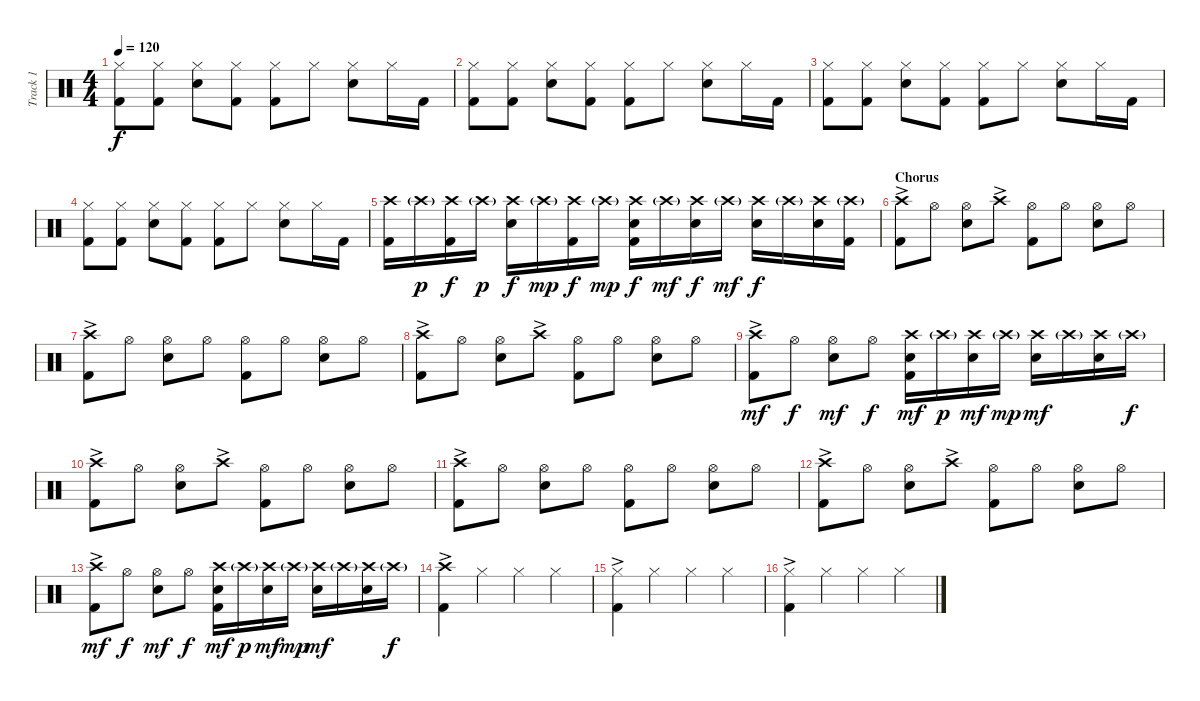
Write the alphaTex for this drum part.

\track ("Track 1" "Track 1") {instrument percussion}
\staff {score}
\articulation defaults
\ts (4 4)
\tempo 120
\clef neutral
\ks c
("Hi-Hat (closed)" "Kick (hit) 2").8{dy f} ("Hi-Hat (closed)" "Kick (hit) 2").8 ("Hi-Hat (closed)" "Snare (hit) 2").8 ("Hi-Hat (closed)" "Kick (hit) 2").8 ("Hi-Hat (closed)" "Kick (hit) 2").8 "Hi-Hat (closed)".8 ("Hi-Hat (closed)" "Snare (hit) 2").8 "Hi-Hat (closed)".16 "Kick (hit) 2".16 |
("Hi-Hat (closed)" "Kick (hit) 2").8 ("Hi-Hat (closed)" "Kick (hit) 2").8 ("Hi-Hat (closed)" "Snare (hit) 2").8 ("Hi-Hat (closed)" "Kick (hit) 2").8 ("Hi-Hat (closed)" "Kick (hit) 2").8 "Hi-Hat (closed)".8 ("Hi-Hat (closed)" "Snare (hit) 2").8 "Hi-Hat (closed)".16 "Kick (hit) 2".16 |
("Hi-Hat (closed)" "Kick (hit) 2").8 ("Hi-Hat (closed)" "Kick (hit) 2").8 ("Hi-Hat (closed)" "Snare (hit) 2").8 ("Hi-Hat (closed)" "Kick (hit) 2").8 ("Hi-Hat (closed)" "Kick (hit) 2").8 "Hi-Hat (closed)".8 ("Hi-Hat (closed)" "Snare (hit) 2").8 "Hi-Hat (closed)".16 "Kick (hit) 2".16 |
("Hi-Hat (closed)" "Kick (hit) 2").8 ("Hi-Hat (closed)" "Kick (hit) 2").8 ("Hi-Hat (closed)" "Snare (hit) 2").8 ("Hi-Hat (closed)" "Kick (hit) 2").8 ("Hi-Hat (closed)" "Kick (hit) 2").8 "Hi-Hat (closed)".8 ("Hi-Hat (closed)" "Snare (hit) 2").8 "Hi-Hat (closed)".16 "Kick (hit) 2".16 |
("Crash high (hit)" "Kick (hit) 2").16 "Crash high (hit)"{g}.16{dy p} ("Crash high (hit)" "Kick (hit) 2").16{dy f} "Crash high (hit)"{g}.16{dy p} ("Crash high (hit)" "Snare (hit) 2").16{dy f} "Crash high (hit)"{g}.16{dy mp} ("Crash high (hit)" "Kick (hit) 2").16{dy f} "Crash high (hit)"{g}.16{dy mp} ("Crash high (hit)" "Snare (hit) 2" "Kick (hit) 2").16{dy f} "Crash high (hit)"{g}.16{dy mf} ("Crash high (hit)" "Snare (hit) 2").16{dy f} "Crash high (hit)"{g}.16{dy mf} ("Crash high (hit)" "Snare (hit) 2").16{dy f} "Crash high (hit)"{g}.16 ("Crash high (hit)" "Snare (hit) 2").16 ("Crash high (hit)"{g} "Kick (hit) 2").16 |
\section ("" "Chorus")
("Crash high (hit)"{ac} "Kick (hit) 2").8 "Hi-Hat (open)".8 ("Hi-Hat (open)" "Snare (hit) 2").8 "Crash high (hit)"{ac}.8 ("Hi-Hat (open)" "Kick (hit) 2").8 "Hi-Hat (open)".8 ("Hi-Hat (open)" "Snare (hit) 2").8 "Hi-Hat (open)".8 |
("Crash high (hit)"{ac} "Kick (hit) 2").8 "Hi-Hat (open)".8 ("Hi-Hat (open)" "Snare (hit) 2").8 "Hi-Hat (open)".8 ("Hi-Hat (open)" "Kick (hit) 2").8 "Hi-Hat (open)".8 ("Hi-Hat (open)" "Snare (hit) 2").8 "Hi-Hat (open)".8 |
("Crash high (hit)"{ac} "Kick (hit) 2").8 "Hi-Hat (open)".8 ("Hi-Hat (open)" "Snare (hit) 2").8 "Crash high (hit)"{ac}.8 ("Hi-Hat (open)" "Kick (hit) 2").8 "Hi-Hat (open)".8 ("Hi-Hat (open)" "Snare (hit) 2").8 "Hi-Hat (open)".8 |
("Crash high (hit)"{ac} "Kick (hit) 2").8{dy mf} "Hi-Hat (open)".8{dy f} ("Hi-Hat (open)" "Snare (hit) 2").8{dy mf} "Hi-Hat (open)".8{dy f} ("Crash high (hit)" "Snare (hit) 2" "Kick (hit) 2").16{dy mf} "Crash high (hit)"{g}.16{dy p} ("Crash high (hit)" "Snare (hit) 2").16{dy mf} "Crash high (hit)"{g}.16{dy mp} ("Crash high (hit)" "Snare (hit) 2").16{dy mf} "Crash high (hit)"{g}.16 ("Crash high (hit)" "Snare (hit) 2").16 "Crash high (hit)"{g}.16{dy f} |
("Crash high (hit)"{ac} "Kick (hit) 2").8 "Hi-Hat (open)".8 ("Hi-Hat (open)" "Snare (hit) 2").8 "Crash high (hit)"{ac}.8 ("Hi-Hat (open)" "Kick (hit) 2").8 "Hi-Hat (open)".8 ("Hi-Hat (open)" "Snare (hit) 2").8 "Hi-Hat (open)".8 |
("Crash high (hit)"{ac} "Kick (hit) 2").8 "Hi-Hat (open)".8 ("Hi-Hat (open)" "Snare (hit) 2").8 "Hi-Hat (open)".8 ("Hi-Hat (open)" "Kick (hit) 2").8 "Hi-Hat (open)".8 ("Hi-Hat (open)" "Snare (hit) 2").8 "Hi-Hat (open)".8 |
("Crash high (hit)"{ac} "Kick (hit) 2").8 "Hi-Hat (open)".8 ("Hi-Hat (open)" "Snare (hit) 2").8 "Crash high (hit)"{ac}.8 ("Hi-Hat (open)" "Kick (hit) 2").8 "Hi-Hat (open)".8 ("Hi-Hat (open)" "Snare (hit) 2").8 "Hi-Hat (open)".8 |
("Crash high (hit)"{ac} "Kick (hit) 2").8{dy mf} "Hi-Hat (open)".8{dy f} ("Hi-Hat (open)" "Snare (hit) 2").8{dy mf} "Hi-Hat (open)".8{dy f} ("Crash high (hit)" "Snare (hit) 2" "Kick (hit) 2").16{dy mf} "Crash high (hit)"{g}.16{dy p} ("Crash high (hit)" "Snare (hit) 2").16{dy mf} "Crash high (hit)"{g}.16{dy mp} ("Crash high (hit)" "Snare (hit) 2").16{dy mf} "Crash high (hit)"{g}.16 ("Crash high (hit)" "Snare (hit) 2").16 "Crash high (hit)"{g}.16{dy f} |
("Crash high (hit)"{ac} "Kick (hit) 2").4 "Hi-Hat (closed)".4 "Hi-Hat (closed)".4 "Hi-Hat (closed)".4 |
("Hi-Hat (closed)"{ac} "Kick (hit) 2").4 "Hi-Hat (closed)".4 "Hi-Hat (closed)".4 "Hi-Hat (closed)".4 |
("Hi-Hat (closed)"{ac} "Kick (hit) 2").4 "Hi-Hat (closed)".4 "Hi-Hat (closed)".4 "Hi-Hat (closed)".4
